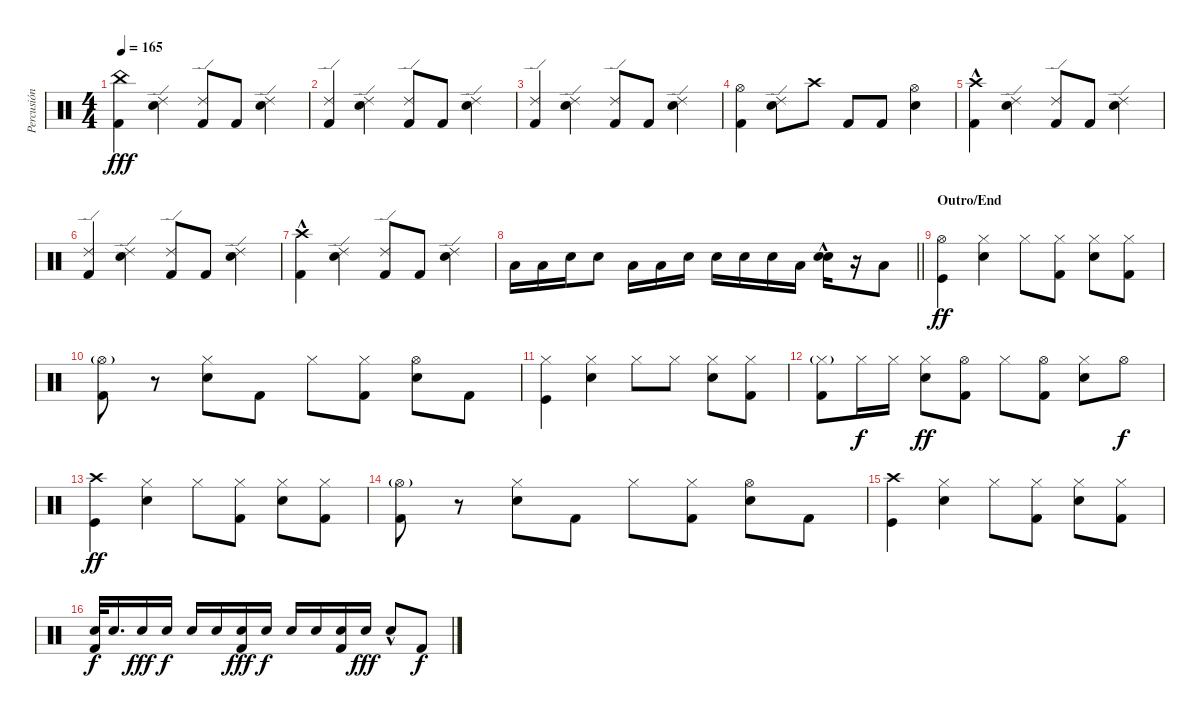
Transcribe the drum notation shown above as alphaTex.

\track ("Percusión" "Percusión") {instrument percussion}
\staff {score}
\articulation defaults
\ts (4 4)
\tempo 165
\clef neutral
\ks c
("Kick (hit) 2" "China (hit)").4{dy fff} ("Electric Snare (hit)" "Ride (edge) 2").4 ("Kick (hit) 2" "Ride (edge) 2").8 "Kick (hit) 2".8 ("Electric Snare (hit)" "Ride (edge) 2").4 |
("Kick (hit) 2" "Ride (edge) 2").4 ("Electric Snare (hit)" "Ride (edge) 2").4 ("Kick (hit) 2" "Ride (edge) 2").8 "Kick (hit) 2".8 ("Electric Snare (hit)" "Ride (edge) 2").4 |
("Kick (hit) 2" "Ride (edge) 2").4 ("Electric Snare (hit)" "Ride (edge) 2").4 ("Kick (hit) 2" "Ride (edge) 2").8 "Kick (hit) 2".8 ("Electric Snare (hit)" "Ride (edge) 2").4 |
("Kick (hit) 2" "Hi-Hat (open)").4 ("Electric Snare (hit)" "Ride (edge) 2").8 "Crash high (hit)".8 "Kick (hit) 2".8 "Kick (hit) 2".8 ("Electric Snare (hit)" "Hi-Hat (open)").4 |
("Kick (hit) 2" "Crash high (hit)"{hac}).4 ("Electric Snare (hit)" "Ride (edge) 2").4 ("Kick (hit) 2" "Ride (edge) 2").8 "Kick (hit) 2".8 ("Electric Snare (hit)" "Ride (edge) 2").4 |
("Kick (hit) 2" "Ride (edge) 2").4 ("Electric Snare (hit)" "Ride (edge) 2").4 ("Kick (hit) 2" "Ride (edge) 2").8 "Kick (hit) 2".8 ("Electric Snare (hit)" "Ride (edge) 2").4 |
("Kick (hit) 2" "Crash high (hit)"{hac}).4 ("Electric Snare (hit)" "Ride (edge) 2").4 ("Kick (hit) 2" "Ride (edge) 2").8 "Kick (hit) 2".8 ("Electric Snare (hit)" "Ride (edge) 2").4 |
\barLineRight lightlight "Low Tom (hit)".16 "Low Tom (hit)".16 "Electric Snare (hit)".16 "Electric Snare (hit)".8 "Low Tom (hit)".16 "Low Tom (hit)".16 "Electric Snare (hit)".16 "Electric Snare (hit)".16 "Electric Snare (hit)".16 "Electric Snare (hit)".16 "Low Tom (hit)".16
("Electric Snare (hit)"{hac} "Snare (hit) 2").16 r.16 "Low Tom (hit)".8 |
\section ("" "Outro/End")
("Kick (hit)" "Hi-Hat (open)").4{dy ff} ("Electric Snare (hit)" "Hi-Hat (closed)").4 "Hi-Hat (closed)".8 ("Kick (hit) 2" "Hi-Hat (closed)").8 ("Electric Snare (hit)" "Hi-Hat (closed)").8 ("Kick (hit) 2" "Hi-Hat (closed)").8 |
("Kick (hit) 2" "Hi-Hat (open)"{g}).8 r.8 ("Electric Snare (hit)" "Hi-Hat (closed)").8 "Kick (hit) 2".8 "Hi-Hat (closed)".8 ("Kick (hit) 2" "Hi-Hat (closed)").8 ("Electric Snare (hit)" "Hi-Hat (open)").8 "Kick (hit) 2".8 |
("Kick (hit)" "Hi-Hat (closed)").4 ("Electric Snare (hit)" "Hi-Hat (closed)").4 "Hi-Hat (closed)".8 "Hi-Hat (closed)".8 ("Electric Snare (hit)" "Hi-Hat (closed)").8 ("Kick (hit) 2" "Hi-Hat (closed)").8 |
("Kick (hit) 2" "Hi-Hat (closed)"{g}).8 "Hi-Hat (closed)".16{dy f} "Hi-Hat (closed)".16 ("Electric Snare (hit)" "Hi-Hat (closed)").8{dy ff} ("Kick (hit) 2" "Hi-Hat (open)").8 "Hi-Hat (closed)".8 ("Kick (hit) 2" "Hi-Hat (open)").8 ("Electric Snare (hit)" "Hi-Hat (closed)").8 "Hi-Hat (open)".8{dy f} |
("Kick (hit)" "Crash high (hit)").4{dy ff} ("Electric Snare (hit)" "Hi-Hat (closed)").4 "Hi-Hat (closed)".8 ("Kick (hit) 2" "Hi-Hat (closed)").8 ("Electric Snare (hit)" "Hi-Hat (closed)").8 ("Kick (hit) 2" "Hi-Hat (closed)").8 |
("Kick (hit) 2" "Hi-Hat (open)"{g}).8 r.8 ("Electric Snare (hit)" "Hi-Hat (closed)").8 "Kick (hit) 2".8 "Hi-Hat (closed)".8 ("Kick (hit) 2" "Hi-Hat (closed)").8 ("Electric Snare (hit)" "Hi-Hat (open)").8 "Kick (hit) 2".8 |
("Kick (hit)" "Crash high (hit)").4 ("Electric Snare (hit)" "Hi-Hat (closed)").4 "Hi-Hat (closed)".8 ("Kick (hit) 2" "Hi-Hat (closed)").8 ("Electric Snare (hit)" "Hi-Hat (closed)").8 ("Kick (hit) 2" "Hi-Hat (closed)").8 |
("Electric Snare (hit)" "Kick (hit) 2").32{dy f} "Electric Snare (hit)".16{d} "Electric Snare (hit)".16{dy fff} "Electric Snare (hit)".16{dy f} "Electric Snare (hit)".16 "Electric Snare (hit)".16 ("Electric Snare (hit)" "Kick (hit) 2").16{dy fff} "Electric Snare (hit)".16{dy f} "Electric Snare (hit)".16 "Electric Snare (hit)".16 ("Electric Snare (hit)" "Kick (hit) 2").16 "Electric Snare (hit)".16{dy fff} "Electric Snare (hit)"{hac}.8 "Kick (hit) 2".8{dy f}
